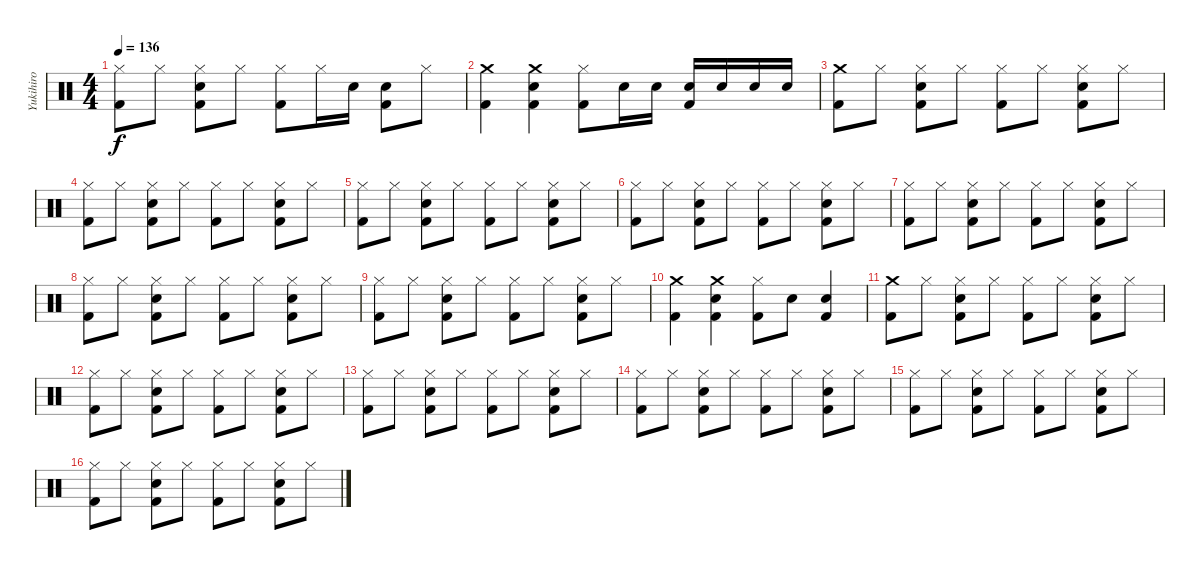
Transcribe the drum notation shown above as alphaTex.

\track ("Yukihiro" "Yukihiro") {instrument percussion}
\staff {score}
\articulation defaults
\ts (4 4)
\tempo 136
\clef neutral
\ks c
("Hi-Hat (closed)" "Kick (hit) 2").8{dy f} "Hi-Hat (closed)".8 ("Hi-Hat (closed)" "Snare (hit) 2" "Kick (hit) 2").8 "Hi-Hat (closed)".8 ("Hi-Hat (closed)" "Kick (hit) 2").8 "Hi-Hat (closed)".16 "Snare (hit) 2".16 ("Snare (hit) 2" "Kick (hit) 2").8 "Hi-Hat (closed)".8 |
("Crash medium (hit)" "Kick (hit) 2").4 ("Crash medium (hit)" "Snare (hit) 2" "Kick (hit) 2").4 ("Hi-Hat (closed)" "Kick (hit) 2").8 "Snare (hit) 2".16 "Snare (hit) 2".16 ("Snare (hit) 2" "Kick (hit) 2").16 "Snare (hit) 2".16 "Snare (hit) 2".16 "Snare (hit) 2".16 |
("Crash medium (hit)" "Kick (hit) 2").8 "Hi-Hat (closed)".8 ("Hi-Hat (closed)" "Snare (hit) 2" "Kick (hit) 2").8 "Hi-Hat (closed)".8 ("Hi-Hat (closed)" "Kick (hit) 2").8 "Hi-Hat (closed)".8 ("Hi-Hat (closed)" "Snare (hit) 2" "Kick (hit) 2").8 "Hi-Hat (closed)".8 |
("Hi-Hat (closed)" "Kick (hit) 2").8 "Hi-Hat (closed)".8 ("Hi-Hat (closed)" "Snare (hit) 2" "Kick (hit) 2").8 "Hi-Hat (closed)".8 ("Hi-Hat (closed)" "Kick (hit) 2").8 "Hi-Hat (closed)".8 ("Hi-Hat (closed)" "Snare (hit) 2" "Kick (hit) 2").8 "Hi-Hat (closed)".8 |
("Hi-Hat (closed)" "Kick (hit) 2").8 "Hi-Hat (closed)".8 ("Hi-Hat (closed)" "Snare (hit) 2" "Kick (hit) 2").8 "Hi-Hat (closed)".8 ("Hi-Hat (closed)" "Kick (hit) 2").8 "Hi-Hat (closed)".8 ("Hi-Hat (closed)" "Snare (hit) 2" "Kick (hit) 2").8 "Hi-Hat (closed)".8 |
("Hi-Hat (closed)" "Kick (hit) 2").8 "Hi-Hat (closed)".8 ("Hi-Hat (closed)" "Snare (hit) 2" "Kick (hit) 2").8 "Hi-Hat (closed)".8 ("Hi-Hat (closed)" "Kick (hit) 2").8 "Hi-Hat (closed)".8 ("Hi-Hat (closed)" "Snare (hit) 2" "Kick (hit) 2").8 "Hi-Hat (closed)".8 |
("Hi-Hat (closed)" "Kick (hit) 2").8 "Hi-Hat (closed)".8 ("Hi-Hat (closed)" "Snare (hit) 2" "Kick (hit) 2").8 "Hi-Hat (closed)".8 ("Hi-Hat (closed)" "Kick (hit) 2").8 "Hi-Hat (closed)".8 ("Hi-Hat (closed)" "Snare (hit) 2" "Kick (hit) 2").8 "Hi-Hat (closed)".8 |
("Hi-Hat (closed)" "Kick (hit) 2").8 "Hi-Hat (closed)".8 ("Hi-Hat (closed)" "Snare (hit) 2" "Kick (hit) 2").8 "Hi-Hat (closed)".8 ("Hi-Hat (closed)" "Kick (hit) 2").8 "Hi-Hat (closed)".8 ("Hi-Hat (closed)" "Snare (hit) 2" "Kick (hit) 2").8 "Hi-Hat (closed)".8 |
("Hi-Hat (closed)" "Kick (hit) 2").8 "Hi-Hat (closed)".8 ("Hi-Hat (closed)" "Snare (hit) 2" "Kick (hit) 2").8 "Hi-Hat (closed)".8 ("Hi-Hat (closed)" "Kick (hit) 2").8 "Hi-Hat (closed)".8 ("Hi-Hat (closed)" "Snare (hit) 2" "Kick (hit) 2").8 "Hi-Hat (closed)".8 |
("Crash medium (hit)" "Kick (hit) 2").4 ("Crash medium (hit)" "Snare (hit) 2" "Kick (hit) 2").4 ("Hi-Hat (closed)" "Kick (hit) 2").8 "Snare (hit) 2".8 ("Snare (hit) 2" "Kick (hit) 2").4 |
("Crash medium (hit)" "Kick (hit) 2").8 "Hi-Hat (closed)".8 ("Hi-Hat (closed)" "Snare (hit) 2" "Kick (hit) 2").8 "Hi-Hat (closed)".8 ("Hi-Hat (closed)" "Kick (hit) 2").8 "Hi-Hat (closed)".8 ("Hi-Hat (closed)" "Snare (hit) 2" "Kick (hit) 2").8 "Hi-Hat (closed)".8 |
("Hi-Hat (closed)" "Kick (hit) 2").8 "Hi-Hat (closed)".8 ("Hi-Hat (closed)" "Snare (hit) 2" "Kick (hit) 2").8 "Hi-Hat (closed)".8 ("Hi-Hat (closed)" "Kick (hit) 2").8 "Hi-Hat (closed)".8 ("Hi-Hat (closed)" "Snare (hit) 2" "Kick (hit) 2").8 "Hi-Hat (closed)".8 |
("Hi-Hat (closed)" "Kick (hit) 2").8 "Hi-Hat (closed)".8 ("Hi-Hat (closed)" "Snare (hit) 2" "Kick (hit) 2").8 "Hi-Hat (closed)".8 ("Hi-Hat (closed)" "Kick (hit) 2").8 "Hi-Hat (closed)".8 ("Hi-Hat (closed)" "Snare (hit) 2" "Kick (hit) 2").8 "Hi-Hat (closed)".8 |
("Hi-Hat (closed)" "Kick (hit) 2").8 "Hi-Hat (closed)".8 ("Hi-Hat (closed)" "Snare (hit) 2" "Kick (hit) 2").8 "Hi-Hat (closed)".8 ("Hi-Hat (closed)" "Kick (hit) 2").8 "Hi-Hat (closed)".8 ("Hi-Hat (closed)" "Snare (hit) 2" "Kick (hit) 2").8 "Hi-Hat (closed)".8 |
("Hi-Hat (closed)" "Kick (hit) 2").8 "Hi-Hat (closed)".8 ("Hi-Hat (closed)" "Snare (hit) 2" "Kick (hit) 2").8 "Hi-Hat (closed)".8 ("Hi-Hat (closed)" "Kick (hit) 2").8 "Hi-Hat (closed)".8 ("Hi-Hat (closed)" "Snare (hit) 2" "Kick (hit) 2").8 "Hi-Hat (closed)".8 |
("Hi-Hat (closed)" "Kick (hit) 2").8 "Hi-Hat (closed)".8 ("Hi-Hat (closed)" "Snare (hit) 2" "Kick (hit) 2").8 "Hi-Hat (closed)".8 ("Hi-Hat (closed)" "Kick (hit) 2").8 "Hi-Hat (closed)".8 ("Hi-Hat (closed)" "Snare (hit) 2" "Kick (hit) 2").8 "Hi-Hat (closed)".8
